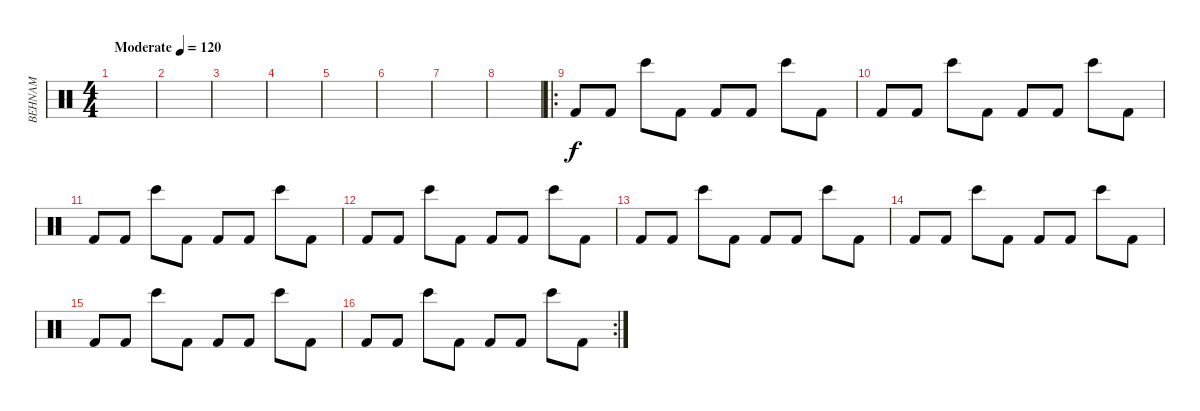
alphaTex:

\track ("BEHNAM" "BEHNAM") {instrument percussion}
\staff {score}
\articulation defaults
\ts (4 4)
\tempo (120 "Moderate")
\clef neutral
\ks c
|
|
|
|
|
|
|
|
\ro "Kick (hit) 2".8 "Kick (hit) 2".8 "Bongo High (hit)".8 "Kick (hit) 2".8 "Kick (hit) 2".8 "Kick (hit) 2".8 "Bongo High (hit)".8 "Kick (hit) 2".8
|
"Kick (hit) 2".8 "Kick (hit) 2".8 "Bongo High (hit)".8 "Kick (hit) 2".8 "Kick (hit) 2".8 "Kick (hit) 2".8 "Bongo High (hit)".8 "Kick (hit) 2".8 |
"Kick (hit) 2".8 "Kick (hit) 2".8 "Bongo High (hit)".8 "Kick (hit) 2".8 "Kick (hit) 2".8 "Kick (hit) 2".8 "Bongo High (hit)".8 "Kick (hit) 2".8 |
"Kick (hit) 2".8 "Kick (hit) 2".8 "Bongo High (hit)".8 "Kick (hit) 2".8 "Kick (hit) 2".8 "Kick (hit) 2".8 "Bongo High (hit)".8 "Kick (hit) 2".8 |
"Kick (hit) 2".8 "Kick (hit) 2".8 "Bongo High (hit)".8 "Kick (hit) 2".8 "Kick (hit) 2".8 "Kick (hit) 2".8 "Bongo High (hit)".8 "Kick (hit) 2".8 |
"Kick (hit) 2".8 "Kick (hit) 2".8 "Bongo High (hit)".8 "Kick (hit) 2".8 "Kick (hit) 2".8 "Kick (hit) 2".8 "Bongo High (hit)".8 "Kick (hit) 2".8 |
"Kick (hit) 2".8 "Kick (hit) 2".8 "Bongo High (hit)".8 "Kick (hit) 2".8 "Kick (hit) 2".8 "Kick (hit) 2".8 "Bongo High (hit)".8 "Kick (hit) 2".8 |
\rc 2 "Kick (hit) 2".8 "Kick (hit) 2".8 "Bongo High (hit)".8 "Kick (hit) 2".8 "Kick (hit) 2".8 "Kick (hit) 2".8 "Bongo High (hit)".8 "Kick (hit) 2".8
